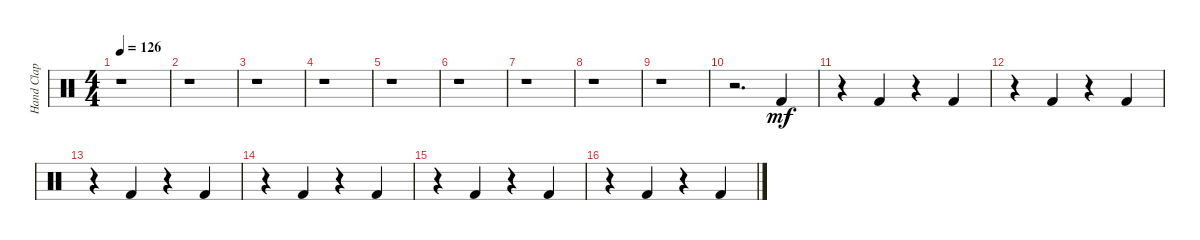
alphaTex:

\track ("Hand Clap" "Hand Clap") {instrument percussion}
\staff {score}
\articulation defaults
\ts (4 4)
\tempo 126
\clef neutral
\ks c
r.1{dy mf} |
r.1 |
r.1 |
r.1 |
r.1 |
r.1 |
r.1 |
r.1 |
r.1 |
r.2{d} "Kick (hit) 2".4 |
r.4 "Kick (hit) 2".4 r.4 "Kick (hit) 2".4 |
r.4 "Kick (hit) 2".4 r.4 "Kick (hit) 2".4 |
r.4 "Kick (hit) 2".4 r.4 "Kick (hit) 2".4 |
r.4 "Kick (hit) 2".4 r.4 "Kick (hit) 2".4 |
r.4 "Kick (hit) 2".4 r.4 "Kick (hit) 2".4 |
r.4 "Kick (hit) 2".4 r.4 "Kick (hit) 2".4
